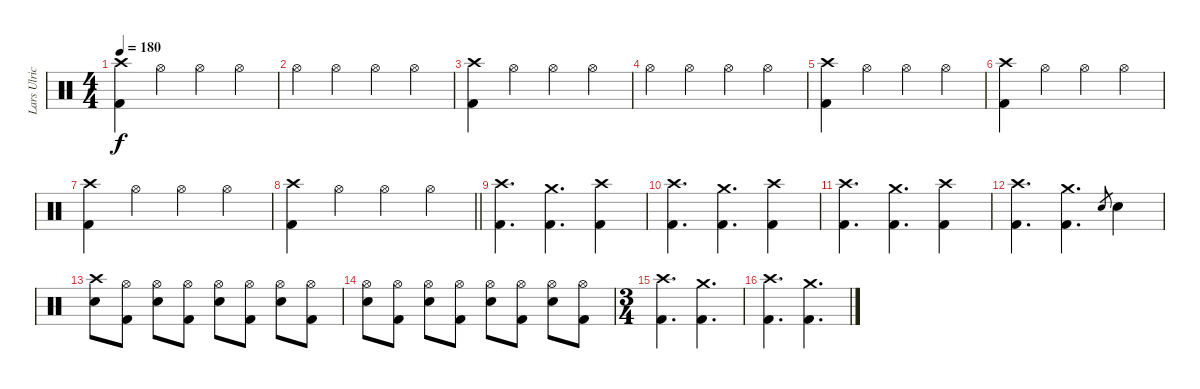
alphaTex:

\track ("Lars Ulrich" "Lars Ulric") {instrument percussion}
\staff {score}
\articulation defaults
\ts (4 4)
\tempo 180
\clef neutral
\ks c
("Crash high (hit)" "Kick (hit) 2").4{dy f} "Hi-Hat (open)".4 "Hi-Hat (open)".4 "Hi-Hat (open)".4 |
"Hi-Hat (open)".4 "Hi-Hat (open)".4 "Hi-Hat (open)".4 "Hi-Hat (open)".4 |
("Crash high (hit)" "Kick (hit) 2").4 "Hi-Hat (open)".4 "Hi-Hat (open)".4 "Hi-Hat (open)".4 |
"Hi-Hat (open)".4 "Hi-Hat (open)".4 "Hi-Hat (open)".4 "Hi-Hat (open)".4 |
("Crash high (hit)" "Kick (hit) 2").4 "Hi-Hat (open)".4 "Hi-Hat (open)".4 "Hi-Hat (open)".4 |
("Crash high (hit)" "Kick (hit) 2").4 "Hi-Hat (open)".4 "Hi-Hat (open)".4 "Hi-Hat (open)".4 |
("Crash high (hit)" "Kick (hit) 2").4 "Hi-Hat (open)".4 "Hi-Hat (open)".4 "Hi-Hat (open)".4 |
\barLineRight lightlight
("Crash high (hit)" "Kick (hit) 2").4 "Hi-Hat (open)".4 "Hi-Hat (open)".4 "Hi-Hat (open)".4 |
\section ("" "")
("Crash high (hit)" "Kick (hit) 2").4{d} ("Crash medium (hit)" "Kick (hit) 2").4{d} ("Crash high (hit)" "Kick (hit) 2").4 |
("Crash high (hit)" "Kick (hit) 2").4{d} ("Crash medium (hit)" "Kick (hit) 2").4{d} ("Crash high (hit)" "Kick (hit) 2").4 |
("Crash high (hit)" "Kick (hit) 2").4{d} ("Crash medium (hit)" "Kick (hit) 2").4{d} ("Crash high (hit)" "Kick (hit) 2").4 |
("Crash high (hit)" "Kick (hit) 2").4{d} ("Crash medium (hit)" "Kick (hit) 2").4{d} "Electric Snare (hit)".8{gr} "Electric Snare (hit)".4 |
("Crash high (hit)" "Electric Snare (hit)").8 ("Hi-Hat (open)" "Kick (hit) 2").8 ("Hi-Hat (open)" "Electric Snare (hit)").8 ("Hi-Hat (open)" "Kick (hit) 2").8 ("Hi-Hat (open)" "Electric Snare (hit)").8 ("Hi-Hat (open)" "Kick (hit) 2").8 ("Hi-Hat (open)" "Electric Snare (hit)").8 ("Hi-Hat (open)" "Kick (hit) 2").8 |
("Hi-Hat (open)" "Electric Snare (hit)").8 ("Hi-Hat (open)" "Kick (hit) 2").8 ("Hi-Hat (open)" "Electric Snare (hit)").8 ("Hi-Hat (open)" "Kick (hit) 2").8 ("Hi-Hat (open)" "Electric Snare (hit)").8 ("Hi-Hat (open)" "Kick (hit) 2").8 ("Hi-Hat (open)" "Electric Snare (hit)").8 ("Hi-Hat (open)" "Kick (hit) 2").8 |
\ts (3 4)
("Crash high (hit)" "Kick (hit) 2").4{d} ("Crash medium (hit)" "Kick (hit) 2").4{d} |
("Crash high (hit)" "Kick (hit) 2").4{d} ("Crash medium (hit)" "Kick (hit) 2").4{d}
